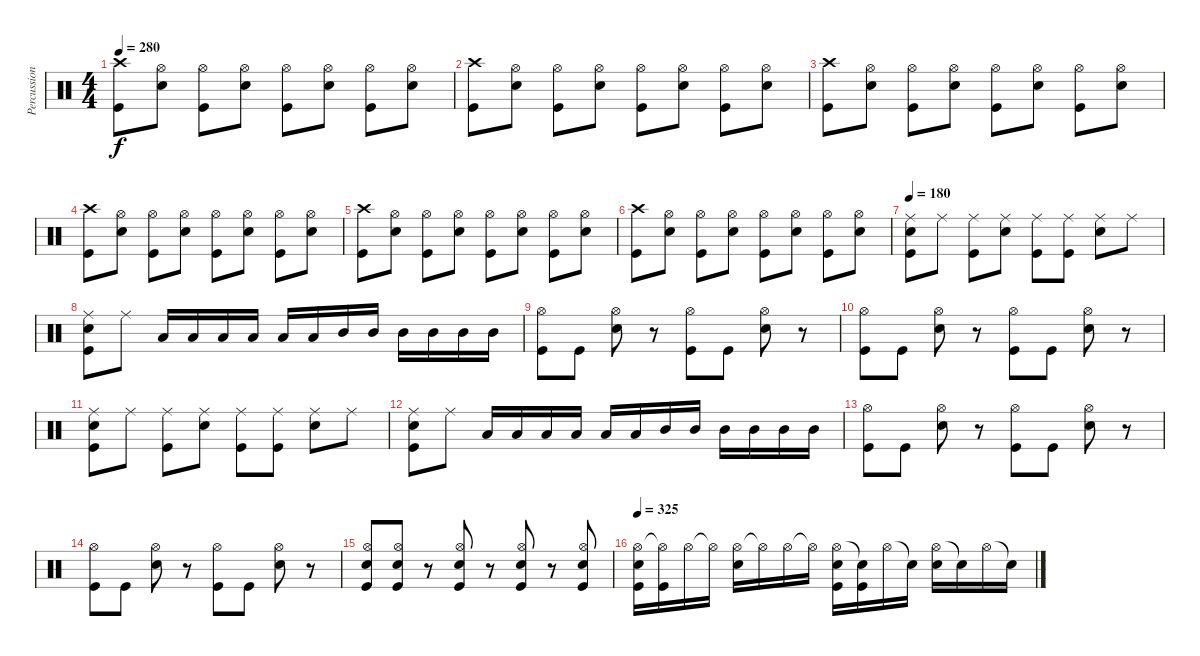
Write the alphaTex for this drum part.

\track ("Percussion" "Percussion") {instrument percussion}
\staff {score}
\articulation defaults
\ts (4 4)
\tempo 280
\clef neutral
\ks c
("Crash high (hit)" "Kick (hit)").8{dy f} ("Hi-Hat (open)" "Snare (hit) 2").8 ("Hi-Hat (open)" "Kick (hit)").8 ("Hi-Hat (open)" "Snare (hit) 2").8 ("Hi-Hat (open)" "Kick (hit)").8 ("Hi-Hat (open)" "Snare (hit) 2").8 ("Hi-Hat (open)" "Kick (hit)").8 ("Hi-Hat (open)" "Snare (hit) 2").8 |
("Crash high (hit)" "Kick (hit)").8 ("Hi-Hat (open)" "Snare (hit) 2").8 ("Hi-Hat (open)" "Kick (hit)").8 ("Hi-Hat (open)" "Snare (hit) 2").8 ("Hi-Hat (open)" "Kick (hit)").8 ("Hi-Hat (open)" "Snare (hit) 2").8 ("Hi-Hat (open)" "Kick (hit)").8 ("Hi-Hat (open)" "Snare (hit) 2").8 |
("Crash high (hit)" "Kick (hit)").8 ("Hi-Hat (open)" "Snare (hit) 2").8 ("Hi-Hat (open)" "Kick (hit)").8 ("Hi-Hat (open)" "Snare (hit) 2").8 ("Hi-Hat (open)" "Kick (hit)").8 ("Hi-Hat (open)" "Snare (hit) 2").8 ("Hi-Hat (open)" "Kick (hit)").8 ("Hi-Hat (open)" "Snare (hit) 2").8 |
("Crash high (hit)" "Kick (hit)").8 ("Hi-Hat (open)" "Snare (hit) 2").8 ("Hi-Hat (open)" "Kick (hit)").8 ("Hi-Hat (open)" "Snare (hit) 2").8 ("Hi-Hat (open)" "Kick (hit)").8 ("Hi-Hat (open)" "Snare (hit) 2").8 ("Hi-Hat (open)" "Kick (hit)").8 ("Hi-Hat (open)" "Snare (hit) 2").8 |
("Crash high (hit)" "Kick (hit)").8 ("Hi-Hat (open)" "Snare (hit) 2").8 ("Hi-Hat (open)" "Kick (hit)").8 ("Hi-Hat (open)" "Snare (hit) 2").8 ("Hi-Hat (open)" "Kick (hit)").8 ("Hi-Hat (open)" "Snare (hit) 2").8 ("Hi-Hat (open)" "Kick (hit)").8 ("Hi-Hat (open)" "Snare (hit) 2").8 |
("Crash high (hit)" "Kick (hit)").8 ("Hi-Hat (open)" "Snare (hit) 2").8 ("Hi-Hat (open)" "Kick (hit)").8 ("Hi-Hat (open)" "Snare (hit) 2").8 ("Hi-Hat (open)" "Kick (hit)").8 ("Hi-Hat (open)" "Snare (hit) 2").8 ("Hi-Hat (open)" "Kick (hit)").8 ("Hi-Hat (open)" "Snare (hit) 2").8 |
\tempo 180
("Ride (middle)" "Snare (hit) 2" "Kick (hit)").8 "Ride (middle)".8 ("Ride (middle)" "Kick (hit)").8 ("Ride (middle)" "Snare (hit) 2").8 ("Ride (middle)" "Kick (hit)").8 ("Ride (middle)" "Kick (hit)").8 ("Ride (middle)" "Snare (hit) 2").8 "Ride (middle)".8 |
("Ride (middle)" "Snare (hit) 2" "Kick (hit)").8 "Ride (middle)".8 "Low Tom (hit)".16 "Low Tom (hit)".16 "Low Tom (hit)".16 "Low Tom (hit)".16 "Low Tom (hit)".16 "Low Tom (hit)".16 "Mid Tom (hit)".16 "Mid Tom (hit)".16 "Mid Tom (hit)".16 "Mid Tom (hit)".16 "Mid Tom (hit)".16 "Mid Tom (hit)".16 |
("Hi-Hat (open)" "Kick (hit)").8 "Kick (hit)".8 ("Hi-Hat (open)" "Snare (hit) 2").8 r.8 ("Hi-Hat (open)" "Kick (hit)").8 "Kick (hit)".8 ("Hi-Hat (open)" "Snare (hit) 2").8 r.8 |
("Hi-Hat (open)" "Kick (hit)").8 "Kick (hit)".8 ("Hi-Hat (open)" "Snare (hit) 2").8 r.8 ("Hi-Hat (open)" "Kick (hit)").8 "Kick (hit)".8 ("Hi-Hat (open)" "Snare (hit) 2").8 r.8 |
("Ride (middle)" "Snare (hit) 2" "Kick (hit)").8 "Ride (middle)".8 ("Ride (middle)" "Kick (hit)").8 ("Ride (middle)" "Snare (hit) 2").8 ("Ride (middle)" "Kick (hit)").8 ("Ride (middle)" "Kick (hit)").8 ("Ride (middle)" "Snare (hit) 2").8 "Ride (middle)".8 |
("Ride (middle)" "Snare (hit) 2" "Kick (hit)").8 "Ride (middle)".8 "Low Tom (hit)".16 "Low Tom (hit)".16 "Low Tom (hit)".16 "Low Tom (hit)".16 "Low Tom (hit)".16 "Low Tom (hit)".16 "Mid Tom (hit)".16 "Mid Tom (hit)".16 "Mid Tom (hit)".16 "Mid Tom (hit)".16 "Mid Tom (hit)".16 "Mid Tom (hit)".16 |
("Hi-Hat (open)" "Kick (hit)").8 "Kick (hit)".8 ("Hi-Hat (open)" "Snare (hit) 2").8 r.8 ("Hi-Hat (open)" "Kick (hit)").8 "Kick (hit)".8 ("Hi-Hat (open)" "Snare (hit) 2").8 r.8 |
("Hi-Hat (open)" "Kick (hit)").8 "Kick (hit)".8 ("Hi-Hat (open)" "Snare (hit) 2").8 r.8 ("Hi-Hat (open)" "Kick (hit)").8 "Kick (hit)".8 ("Hi-Hat (open)" "Snare (hit) 2").8 r.8 |
("Hi-Hat (open)" "Snare (hit) 2" "Kick (hit)").8 ("Hi-Hat (open)" "Snare (hit) 2" "Kick (hit)").8 r.8 ("Hi-Hat (open)" "Snare (hit) 2" "Kick (hit)").8 r.8 ("Hi-Hat (open)" "Snare (hit) 2" "Kick (hit)").8 r.8 ("Hi-Hat (open)" "Snare (hit) 2" "Kick (hit)").8 |
\tempo 325
("Hi-Hat (open)" "Snare (hit) 2" "Kick (hit)").16 ("Hi-Hat (open)"{t} "Kick (hit)").16 "Hi-Hat (open)".16 "Hi-Hat (open)"{t}.16 ("Hi-Hat (open)" "Snare (hit) 2").16 "Hi-Hat (open)"{t}.16 "Hi-Hat (open)".16 "Hi-Hat (open)"{t}.16 ("Hi-Hat (open)" "Snare (hit) 2" "Kick (hit)").16 ("Snare (hit)"{t} "Kick (hit)").16 "Hi-Hat (open)".16 "Snare (hit)"{t}.16 ("Hi-Hat (open)" "Snare (hit) 2").16 "Snare (hit)"{t}.16 "Hi-Hat (open)".16 "Snare (hit)"{t}.16
